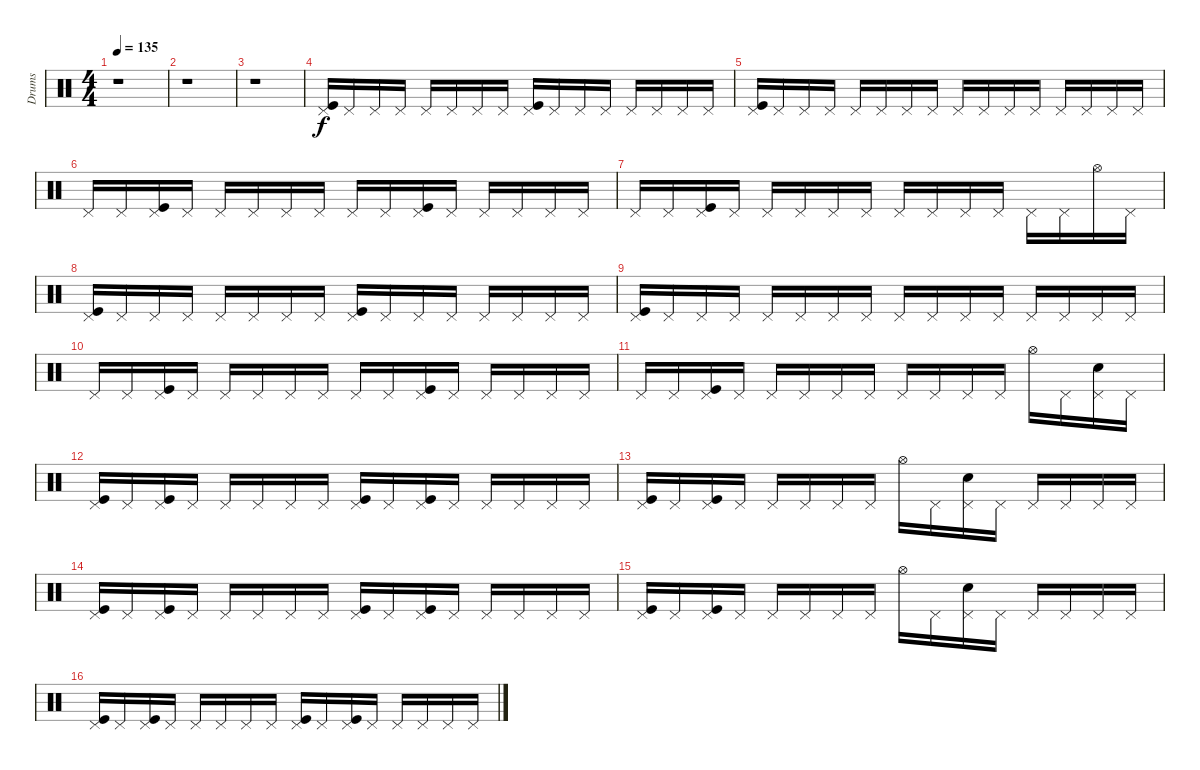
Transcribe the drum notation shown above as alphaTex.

\track ("Drums" "Drums") {instrument percussion}
\staff {score}
\articulation defaults
\ts (4 4)
\tempo 135
\clef neutral
\ks c
r.1{dy f} |
r.1 |
r.1 |
("Pedal Hi-Hat (hit)" "Kick (hit)").16 "Pedal Hi-Hat (hit)".16 "Pedal Hi-Hat (hit)".16 "Pedal Hi-Hat (hit)".16 "Pedal Hi-Hat (hit)".16 "Pedal Hi-Hat (hit)".16 "Pedal Hi-Hat (hit)".16 "Pedal Hi-Hat (hit)".16 ("Pedal Hi-Hat (hit)" "Kick (hit)").16 "Pedal Hi-Hat (hit)".16 "Pedal Hi-Hat (hit)".16 "Pedal Hi-Hat (hit)".16 "Pedal Hi-Hat (hit)".16 "Pedal Hi-Hat (hit)".16 "Pedal Hi-Hat (hit)".16 "Pedal Hi-Hat (hit)".16 |
("Pedal Hi-Hat (hit)" "Kick (hit)").16 "Pedal Hi-Hat (hit)".16 "Pedal Hi-Hat (hit)".16 "Pedal Hi-Hat (hit)".16 "Pedal Hi-Hat (hit)".16 "Pedal Hi-Hat (hit)".16 "Pedal Hi-Hat (hit)".16 "Pedal Hi-Hat (hit)".16 "Pedal Hi-Hat (hit)".16 "Pedal Hi-Hat (hit)".16 "Pedal Hi-Hat (hit)".16 "Pedal Hi-Hat (hit)".16 "Pedal Hi-Hat (hit)".16 "Pedal Hi-Hat (hit)".16 "Pedal Hi-Hat (hit)".16 "Pedal Hi-Hat (hit)".16 |
"Pedal Hi-Hat (hit)".16 "Pedal Hi-Hat (hit)".16 ("Pedal Hi-Hat (hit)" "Kick (hit)").16 "Pedal Hi-Hat (hit)".16 "Pedal Hi-Hat (hit)".16 "Pedal Hi-Hat (hit)".16 "Pedal Hi-Hat (hit)".16 "Pedal Hi-Hat (hit)".16 "Pedal Hi-Hat (hit)".16 "Pedal Hi-Hat (hit)".16 ("Pedal Hi-Hat (hit)" "Kick (hit)").16 "Pedal Hi-Hat (hit)".16 "Pedal Hi-Hat (hit)".16 "Pedal Hi-Hat (hit)".16 "Pedal Hi-Hat (hit)".16 "Pedal Hi-Hat (hit)".16 |
"Pedal Hi-Hat (hit)".16 "Pedal Hi-Hat (hit)".16 ("Pedal Hi-Hat (hit)" "Kick (hit)").16 "Pedal Hi-Hat (hit)".16 "Pedal Hi-Hat (hit)".16 "Pedal Hi-Hat (hit)".16 "Pedal Hi-Hat (hit)".16 "Pedal Hi-Hat (hit)".16 "Pedal Hi-Hat (hit)".16 "Pedal Hi-Hat (hit)".16 "Pedal Hi-Hat (hit)".16 "Pedal Hi-Hat (hit)".16 "Pedal Hi-Hat (hit)".16 "Pedal Hi-Hat (hit)".16 "Hi-Hat (open)".16 "Pedal Hi-Hat (hit)".16 |
("Pedal Hi-Hat (hit)" "Kick (hit)").16 "Pedal Hi-Hat (hit)".16 "Pedal Hi-Hat (hit)".16 "Pedal Hi-Hat (hit)".16 "Pedal Hi-Hat (hit)".16 "Pedal Hi-Hat (hit)".16 "Pedal Hi-Hat (hit)".16 "Pedal Hi-Hat (hit)".16 ("Pedal Hi-Hat (hit)" "Kick (hit)").16 "Pedal Hi-Hat (hit)".16 "Pedal Hi-Hat (hit)".16 "Pedal Hi-Hat (hit)".16 "Pedal Hi-Hat (hit)".16 "Pedal Hi-Hat (hit)".16 "Pedal Hi-Hat (hit)".16 "Pedal Hi-Hat (hit)".16 |
("Pedal Hi-Hat (hit)" "Kick (hit)").16 "Pedal Hi-Hat (hit)".16 "Pedal Hi-Hat (hit)".16 "Pedal Hi-Hat (hit)".16 "Pedal Hi-Hat (hit)".16 "Pedal Hi-Hat (hit)".16 "Pedal Hi-Hat (hit)".16 "Pedal Hi-Hat (hit)".16 "Pedal Hi-Hat (hit)".16 "Pedal Hi-Hat (hit)".16 "Pedal Hi-Hat (hit)".16 "Pedal Hi-Hat (hit)".16 "Pedal Hi-Hat (hit)".16 "Pedal Hi-Hat (hit)".16 "Pedal Hi-Hat (hit)".16 "Pedal Hi-Hat (hit)".16 |
"Pedal Hi-Hat (hit)".16 "Pedal Hi-Hat (hit)".16 ("Pedal Hi-Hat (hit)" "Kick (hit)").16 "Pedal Hi-Hat (hit)".16 "Pedal Hi-Hat (hit)".16 "Pedal Hi-Hat (hit)".16 "Pedal Hi-Hat (hit)".16 "Pedal Hi-Hat (hit)".16 "Pedal Hi-Hat (hit)".16 "Pedal Hi-Hat (hit)".16 ("Pedal Hi-Hat (hit)" "Kick (hit)").16 "Pedal Hi-Hat (hit)".16 "Pedal Hi-Hat (hit)".16 "Pedal Hi-Hat (hit)".16 "Pedal Hi-Hat (hit)".16 "Pedal Hi-Hat (hit)".16 |
"Pedal Hi-Hat (hit)".16 "Pedal Hi-Hat (hit)".16 ("Pedal Hi-Hat (hit)" "Kick (hit)").16 "Pedal Hi-Hat (hit)".16 "Pedal Hi-Hat (hit)".16 "Pedal Hi-Hat (hit)".16 "Pedal Hi-Hat (hit)".16 "Pedal Hi-Hat (hit)".16 "Pedal Hi-Hat (hit)".16 "Pedal Hi-Hat (hit)".16 "Pedal Hi-Hat (hit)".16 "Pedal Hi-Hat (hit)".16 "Hi-Hat (open)".16 "Pedal Hi-Hat (hit)".16 ("Pedal Hi-Hat (hit)" "Snare (hit) 2").16 "Pedal Hi-Hat (hit)".16 |
("Pedal Hi-Hat (hit)" "Kick (hit)").16 "Pedal Hi-Hat (hit)".16 ("Pedal Hi-Hat (hit)" "Kick (hit)").16 "Pedal Hi-Hat (hit)".16 "Pedal Hi-Hat (hit)".16 "Pedal Hi-Hat (hit)".16 "Pedal Hi-Hat (hit)".16 "Pedal Hi-Hat (hit)".16 ("Pedal Hi-Hat (hit)" "Kick (hit)").16 "Pedal Hi-Hat (hit)".16 ("Pedal Hi-Hat (hit)" "Kick (hit)").16 "Pedal Hi-Hat (hit)".16 "Pedal Hi-Hat (hit)".16 "Pedal Hi-Hat (hit)".16 "Pedal Hi-Hat (hit)".16 "Pedal Hi-Hat (hit)".16 |
("Pedal Hi-Hat (hit)" "Kick (hit)").16 "Pedal Hi-Hat (hit)".16 ("Pedal Hi-Hat (hit)" "Kick (hit)").16 "Pedal Hi-Hat (hit)".16 "Pedal Hi-Hat (hit)".16 "Pedal Hi-Hat (hit)".16 "Pedal Hi-Hat (hit)".16 "Pedal Hi-Hat (hit)".16 "Hi-Hat (open)".16 "Pedal Hi-Hat (hit)".16 ("Pedal Hi-Hat (hit)" "Snare (hit) 2").16 "Pedal Hi-Hat (hit)".16 "Pedal Hi-Hat (hit)".16 "Pedal Hi-Hat (hit)".16 "Pedal Hi-Hat (hit)".16 "Pedal Hi-Hat (hit)".16 |
("Pedal Hi-Hat (hit)" "Kick (hit)").16 "Pedal Hi-Hat (hit)".16 ("Pedal Hi-Hat (hit)" "Kick (hit)").16 "Pedal Hi-Hat (hit)".16 "Pedal Hi-Hat (hit)".16 "Pedal Hi-Hat (hit)".16 "Pedal Hi-Hat (hit)".16 "Pedal Hi-Hat (hit)".16 ("Pedal Hi-Hat (hit)" "Kick (hit)").16 "Pedal Hi-Hat (hit)".16 ("Pedal Hi-Hat (hit)" "Kick (hit)").16 "Pedal Hi-Hat (hit)".16 "Pedal Hi-Hat (hit)".16 "Pedal Hi-Hat (hit)".16 "Pedal Hi-Hat (hit)".16 "Pedal Hi-Hat (hit)".16 |
("Pedal Hi-Hat (hit)" "Kick (hit)").16 "Pedal Hi-Hat (hit)".16 ("Pedal Hi-Hat (hit)" "Kick (hit)").16 "Pedal Hi-Hat (hit)".16 "Pedal Hi-Hat (hit)".16 "Pedal Hi-Hat (hit)".16 "Pedal Hi-Hat (hit)".16 "Pedal Hi-Hat (hit)".16 "Hi-Hat (open)".16 "Pedal Hi-Hat (hit)".16 ("Pedal Hi-Hat (hit)" "Snare (hit) 2").16 "Pedal Hi-Hat (hit)".16 "Pedal Hi-Hat (hit)".16 "Pedal Hi-Hat (hit)".16 "Pedal Hi-Hat (hit)".16 "Pedal Hi-Hat (hit)".16 |
("Pedal Hi-Hat (hit)" "Kick (hit)").16 "Pedal Hi-Hat (hit)".16 ("Pedal Hi-Hat (hit)" "Kick (hit)").16 "Pedal Hi-Hat (hit)".16 "Pedal Hi-Hat (hit)".16 "Pedal Hi-Hat (hit)".16 "Pedal Hi-Hat (hit)".16 "Pedal Hi-Hat (hit)".16 ("Pedal Hi-Hat (hit)" "Kick (hit)").16 "Pedal Hi-Hat (hit)".16 ("Pedal Hi-Hat (hit)" "Kick (hit)").16 "Pedal Hi-Hat (hit)".16 "Pedal Hi-Hat (hit)".16 "Pedal Hi-Hat (hit)".16 "Pedal Hi-Hat (hit)".16 "Pedal Hi-Hat (hit)".16
